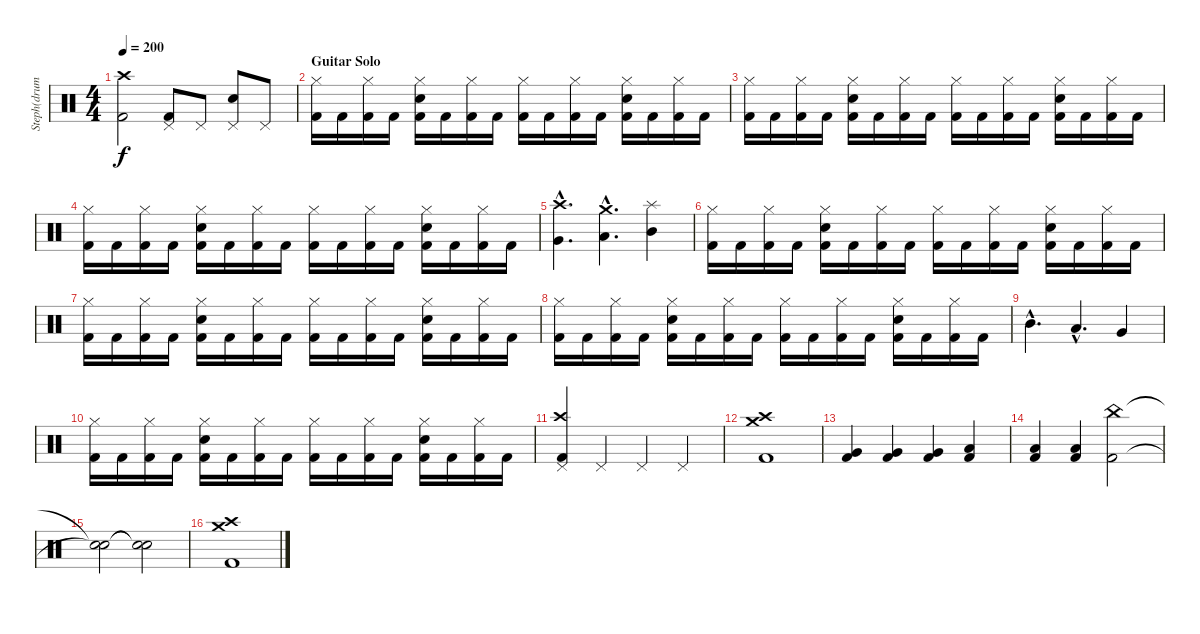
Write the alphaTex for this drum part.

\track ("Steph(drums)" "Steph(drum") {instrument percussion}
\staff {score}
\articulation defaults
\ts (4 4)
\tempo 200
\clef neutral
\ks c
("Kick (hit) 2" "Crash high (hit)").2{dy f} ("Pedal Hi-Hat (hit)" "Kick (hit) 2").8 "Pedal Hi-Hat (hit)".8 ("Pedal Hi-Hat (hit)" "Electric Snare (hit)").8 "Pedal Hi-Hat (hit)".8 |
\section ("" "Guitar Solo")
("Hi-Hat (closed)" "Kick (hit) 2").16 "Kick (hit) 2".16 ("Hi-Hat (closed)" "Kick (hit) 2").16 "Kick (hit) 2".16 ("Hi-Hat (closed)" "Electric Snare (hit)" "Kick (hit) 2").16 "Kick (hit) 2".16 ("Hi-Hat (closed)" "Kick (hit) 2").16 "Kick (hit) 2".16 ("Hi-Hat (closed)" "Kick (hit) 2").16 "Kick (hit) 2".16 ("Hi-Hat (closed)" "Kick (hit) 2").16 "Kick (hit) 2".16 ("Hi-Hat (closed)" "Electric Snare (hit)" "Kick (hit) 2").16 "Kick (hit) 2".16 ("Hi-Hat (closed)" "Kick (hit) 2").16 "Kick (hit) 2".16 |
("Hi-Hat (closed)" "Kick (hit) 2").16 "Kick (hit) 2".16 ("Hi-Hat (closed)" "Kick (hit) 2").16 "Kick (hit) 2".16 ("Hi-Hat (closed)" "Electric Snare (hit)" "Kick (hit) 2").16 "Kick (hit) 2".16 ("Hi-Hat (closed)" "Kick (hit) 2").16 "Kick (hit) 2".16 ("Hi-Hat (closed)" "Kick (hit) 2").16 "Kick (hit) 2".16 ("Hi-Hat (closed)" "Kick (hit) 2").16 "Kick (hit) 2".16 ("Hi-Hat (closed)" "Electric Snare (hit)" "Kick (hit) 2").16 "Kick (hit) 2".16 ("Hi-Hat (closed)" "Kick (hit) 2").16 "Kick (hit) 2".16 |
("Hi-Hat (closed)" "Kick (hit) 2").16 "Kick (hit) 2".16 ("Hi-Hat (closed)" "Kick (hit) 2").16 "Kick (hit) 2".16 ("Hi-Hat (closed)" "Electric Snare (hit)" "Kick (hit) 2").16 "Kick (hit) 2".16 ("Hi-Hat (closed)" "Kick (hit) 2").16 "Kick (hit) 2".16 ("Hi-Hat (closed)" "Kick (hit) 2").16 "Kick (hit) 2".16 ("Hi-Hat (closed)" "Kick (hit) 2").16 "Kick (hit) 2".16 ("Hi-Hat (closed)" "Electric Snare (hit)" "Kick (hit) 2").16 "Kick (hit) 2".16 ("Hi-Hat (closed)" "Kick (hit) 2").16 "Kick (hit) 2".16 |
("Crash high (hit)"{hac} "Very Low Tom (hit)"{hac}).4{d} ("Crash medium (hit)"{hac} "Low Tom (hit)"{hac}).4{d} ("Splash (hit)" "Mid Tom (hit)").4 |
("Hi-Hat (closed)" "Kick (hit) 2").16 "Kick (hit) 2".16 ("Hi-Hat (closed)" "Kick (hit) 2").16 "Kick (hit) 2".16 ("Hi-Hat (closed)" "Electric Snare (hit)" "Kick (hit) 2").16 "Kick (hit) 2".16 ("Hi-Hat (closed)" "Kick (hit) 2").16 "Kick (hit) 2".16 ("Hi-Hat (closed)" "Kick (hit) 2").16 "Kick (hit) 2".16 ("Hi-Hat (closed)" "Kick (hit) 2").16 "Kick (hit) 2".16 ("Hi-Hat (closed)" "Electric Snare (hit)" "Kick (hit) 2").16 "Kick (hit) 2".16 ("Hi-Hat (closed)" "Kick (hit) 2").16 "Kick (hit) 2".16 |
("Hi-Hat (closed)" "Kick (hit) 2").16 "Kick (hit) 2".16 ("Hi-Hat (closed)" "Kick (hit) 2").16 "Kick (hit) 2".16 ("Hi-Hat (closed)" "Electric Snare (hit)" "Kick (hit) 2").16 "Kick (hit) 2".16 ("Hi-Hat (closed)" "Kick (hit) 2").16 "Kick (hit) 2".16 ("Hi-Hat (closed)" "Kick (hit) 2").16 "Kick (hit) 2".16 ("Hi-Hat (closed)" "Kick (hit) 2").16 "Kick (hit) 2".16 ("Hi-Hat (closed)" "Electric Snare (hit)" "Kick (hit) 2").16 "Kick (hit) 2".16 ("Hi-Hat (closed)" "Kick (hit) 2").16 "Kick (hit) 2".16 |
("Hi-Hat (closed)" "Kick (hit) 2").16 "Kick (hit) 2".16 ("Hi-Hat (closed)" "Kick (hit) 2").16 "Kick (hit) 2".16 ("Hi-Hat (closed)" "Electric Snare (hit)" "Kick (hit) 2").16 "Kick (hit) 2".16 ("Hi-Hat (closed)" "Kick (hit) 2").16 "Kick (hit) 2".16 ("Hi-Hat (closed)" "Kick (hit) 2").16 "Kick (hit) 2".16 ("Hi-Hat (closed)" "Kick (hit) 2").16 "Kick (hit) 2".16 ("Hi-Hat (closed)" "Electric Snare (hit)" "Kick (hit) 2").16 "Kick (hit) 2".16 ("Hi-Hat (closed)" "Kick (hit) 2").16 "Kick (hit) 2".16 |
"Mid Tom (hit)"{hac}.4{d} "Low Tom (hit)"{hac}.4{d} "Very Low Tom (hit)".4 |
("Hi-Hat (closed)" "Kick (hit) 2").16 "Kick (hit) 2".16 ("Hi-Hat (closed)" "Kick (hit) 2").16 "Kick (hit) 2".16 ("Hi-Hat (closed)" "Electric Snare (hit)" "Kick (hit) 2").16 "Kick (hit) 2".16 ("Hi-Hat (closed)" "Kick (hit) 2").16 "Kick (hit) 2".16 ("Hi-Hat (closed)" "Kick (hit) 2").16 "Kick (hit) 2".16 ("Hi-Hat (closed)" "Kick (hit) 2").16 "Kick (hit) 2".16 ("Hi-Hat (closed)" "Electric Snare (hit)" "Kick (hit) 2").16 "Kick (hit) 2".16 ("Hi-Hat (closed)" "Kick (hit) 2").16 "Kick (hit) 2".16 |
("Kick (hit) 2" "Pedal Hi-Hat (hit)" "Crash high (hit)").4 "Pedal Hi-Hat (hit)".4 "Pedal Hi-Hat (hit)".4 "Pedal Hi-Hat (hit)".4 |
("Crash high (hit)" "Crash medium (hit)" "Kick (hit) 2").1 |
("Very Low Tom (hit)" "Kick (hit) 2").4 ("Very Low Tom (hit)" "Kick (hit) 2").4 ("Very Low Tom (hit)" "Kick (hit) 2").4 ("Low Tom (hit)" "Kick (hit) 2").4 |
("Low Tom (hit)" "Kick (hit) 2").4 ("Low Tom (hit)" "Kick (hit) 2").4 ("China (hit)" "Kick (hit) 2").2 |
("Snare (hit)"{t} "Snare (hit)"{t}).2 ("Snare (hit)"{t} "Snare (hit)"{t}).2 |
("Crash high (hit)" "Crash medium (hit)" "Kick (hit) 2").1
